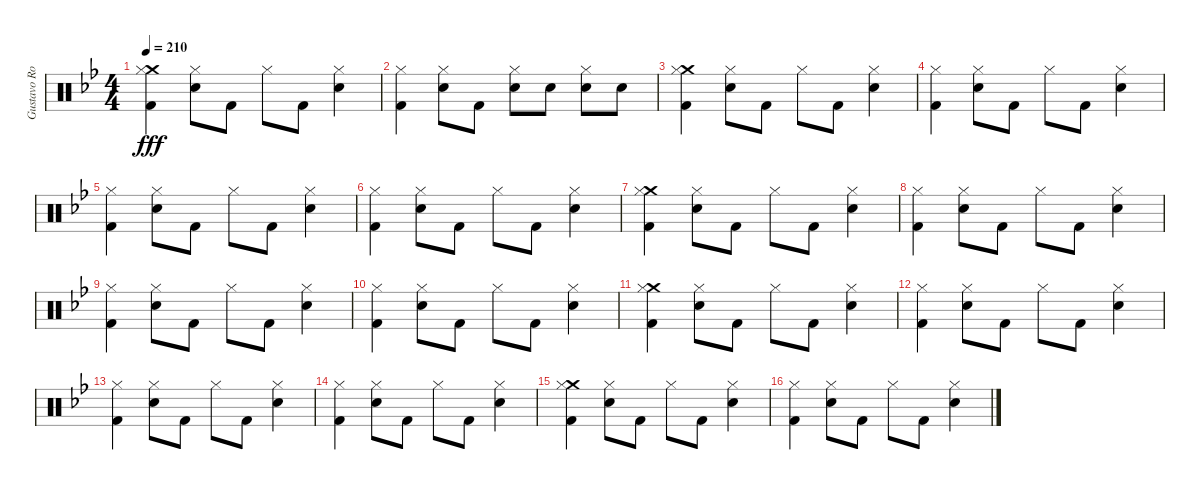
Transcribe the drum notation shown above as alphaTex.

\track ("Gustavo Rowek" "Gustavo Ro") {instrument percussion}
\staff {score}
\articulation defaults
\ts (4 4)
\tempo 210
\clef neutral
\ks gminor
("Crash medium (hit)" "Hi-Hat (closed)" "Kick (hit) 2").4{dy fff} ("Hi-Hat (closed)" "Snare (hit) 2").8 "Kick (hit) 2".8 "Hi-Hat (closed)".8 "Kick (hit) 2".8 ("Hi-Hat (closed)" "Snare (hit) 2").4 |
("Hi-Hat (closed)" "Kick (hit) 2").4 ("Hi-Hat (closed)" "Snare (hit) 2").8 "Kick (hit) 2".8 ("Hi-Hat (closed)" "Snare (hit) 2").8 "Snare (hit) 2".8 ("Hi-Hat (closed)" "Snare (hit) 2").8 "Snare (hit) 2".8 |
("Crash medium (hit)" "Hi-Hat (closed)" "Kick (hit) 2").4 ("Hi-Hat (closed)" "Snare (hit) 2").8 "Kick (hit) 2".8 "Hi-Hat (closed)".8 "Kick (hit) 2".8 ("Hi-Hat (closed)" "Snare (hit) 2").4 |
("Hi-Hat (closed)" "Kick (hit) 2").4 ("Hi-Hat (closed)" "Snare (hit) 2").8 "Kick (hit) 2".8 "Hi-Hat (closed)".8 "Kick (hit) 2".8 ("Hi-Hat (closed)" "Snare (hit) 2").4 |
("Hi-Hat (closed)" "Kick (hit) 2").4 ("Hi-Hat (closed)" "Snare (hit) 2").8 "Kick (hit) 2".8 "Hi-Hat (closed)".8 "Kick (hit) 2".8 ("Hi-Hat (closed)" "Snare (hit) 2").4 |
("Hi-Hat (closed)" "Kick (hit) 2").4 ("Hi-Hat (closed)" "Snare (hit) 2").8 "Kick (hit) 2".8 "Hi-Hat (closed)".8 "Kick (hit) 2".8 ("Hi-Hat (closed)" "Snare (hit) 2").4 |
("Crash medium (hit)" "Hi-Hat (closed)" "Kick (hit) 2").4 ("Hi-Hat (closed)" "Snare (hit) 2").8 "Kick (hit) 2".8 "Hi-Hat (closed)".8 "Kick (hit) 2".8 ("Hi-Hat (closed)" "Snare (hit) 2").4 |
("Hi-Hat (closed)" "Kick (hit) 2").4 ("Hi-Hat (closed)" "Snare (hit) 2").8 "Kick (hit) 2".8 "Hi-Hat (closed)".8 "Kick (hit) 2".8 ("Hi-Hat (closed)" "Snare (hit) 2").4 |
("Hi-Hat (closed)" "Kick (hit) 2").4 ("Hi-Hat (closed)" "Snare (hit) 2").8 "Kick (hit) 2".8 "Hi-Hat (closed)".8 "Kick (hit) 2".8 ("Hi-Hat (closed)" "Snare (hit) 2").4 |
("Hi-Hat (closed)" "Kick (hit) 2").4 ("Hi-Hat (closed)" "Snare (hit) 2").8 "Kick (hit) 2".8 "Hi-Hat (closed)".8 "Kick (hit) 2".8 ("Hi-Hat (closed)" "Snare (hit) 2").4 |
("Crash medium (hit)" "Hi-Hat (closed)" "Kick (hit) 2").4 ("Hi-Hat (closed)" "Snare (hit) 2").8 "Kick (hit) 2".8 "Hi-Hat (closed)".8 "Kick (hit) 2".8 ("Hi-Hat (closed)" "Snare (hit) 2").4 |
("Hi-Hat (closed)" "Kick (hit) 2").4 ("Hi-Hat (closed)" "Snare (hit) 2").8 "Kick (hit) 2".8 "Hi-Hat (closed)".8 "Kick (hit) 2".8 ("Hi-Hat (closed)" "Snare (hit) 2").4 |
("Hi-Hat (closed)" "Kick (hit) 2").4 ("Hi-Hat (closed)" "Snare (hit) 2").8 "Kick (hit) 2".8 "Hi-Hat (closed)".8 "Kick (hit) 2".8 ("Hi-Hat (closed)" "Snare (hit) 2").4 |
("Hi-Hat (closed)" "Kick (hit) 2").4 ("Hi-Hat (closed)" "Snare (hit) 2").8 "Kick (hit) 2".8 "Hi-Hat (closed)".8 "Kick (hit) 2".8 ("Hi-Hat (closed)" "Snare (hit) 2").4 |
("Crash medium (hit)" "Hi-Hat (closed)" "Kick (hit) 2").4 ("Hi-Hat (closed)" "Snare (hit) 2").8 "Kick (hit) 2".8 "Hi-Hat (closed)".8 "Kick (hit) 2".8 ("Hi-Hat (closed)" "Snare (hit) 2").4 |
("Hi-Hat (closed)" "Kick (hit) 2").4 ("Hi-Hat (closed)" "Snare (hit) 2").8 "Kick (hit) 2".8 "Hi-Hat (closed)".8 "Kick (hit) 2".8 ("Hi-Hat (closed)" "Snare (hit) 2").4
